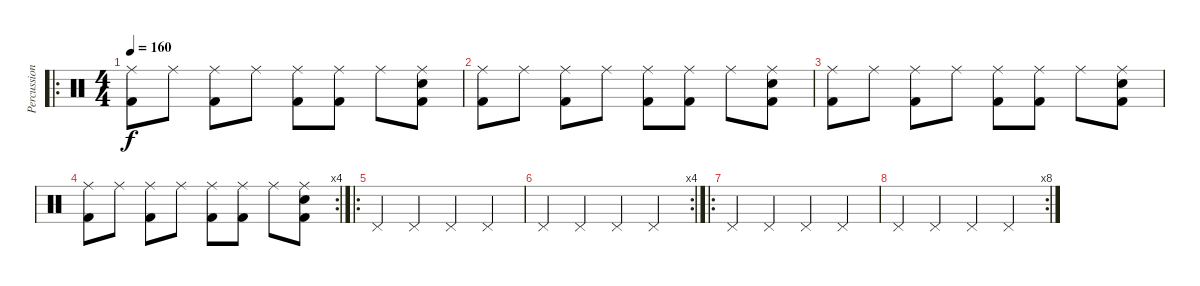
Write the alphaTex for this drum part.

\track ("Percussion" "Percussion") {instrument percussion}
\staff {score}
\articulation defaults
\ro
\ts (4 4)
\tempo 160
\clef neutral
\ks c
("Kick (hit) 2" "Ride (middle)").8{dy f} "Ride (middle)".8 ("Kick (hit) 2" "Ride (middle)").8 "Ride (middle)".8 ("Kick (hit) 2" "Ride (middle)").8 ("Kick (hit) 2" "Ride (middle)").8 "Ride (middle)".8 ("Kick (hit) 2" "Snare (hit) 2" "Ride (middle)").8 |
("Kick (hit) 2" "Ride (middle)").8 "Ride (middle)".8 ("Kick (hit) 2" "Ride (middle)").8 "Ride (middle)".8 ("Kick (hit) 2" "Ride (middle)").8 ("Kick (hit) 2" "Ride (middle)").8 "Ride (middle)".8 ("Kick (hit) 2" "Snare (hit) 2" "Ride (middle)").8 |
("Kick (hit) 2" "Ride (middle)").8 "Ride (middle)".8 ("Kick (hit) 2" "Ride (middle)").8 "Ride (middle)".8 ("Kick (hit) 2" "Ride (middle)").8 ("Kick (hit) 2" "Ride (middle)").8 "Ride (middle)".8 ("Kick (hit) 2" "Snare (hit) 2" "Ride (middle)").8 |
\rc 4
("Kick (hit) 2" "Ride (middle)").8 "Ride (middle)".8 ("Kick (hit) 2" "Ride (middle)").8 "Ride (middle)".8 ("Kick (hit) 2" "Ride (middle)").8 ("Kick (hit) 2" "Ride (middle)").8 "Ride (middle)".8 ("Kick (hit) 2" "Snare (hit) 2" "Ride (middle)").8 |
\ro "Pedal Hi-Hat (hit)".4 "Pedal Hi-Hat (hit)".4 "Pedal Hi-Hat (hit)".4 "Pedal Hi-Hat (hit)".4
|
\rc 4 "Pedal Hi-Hat (hit)".4 "Pedal Hi-Hat (hit)".4 "Pedal Hi-Hat (hit)".4 "Pedal Hi-Hat (hit)".4
|
\ro "Pedal Hi-Hat (hit)".4 "Pedal Hi-Hat (hit)".4 "Pedal Hi-Hat (hit)".4 "Pedal Hi-Hat (hit)".4
|
\rc 8 "Pedal Hi-Hat (hit)".4 "Pedal Hi-Hat (hit)".4 "Pedal Hi-Hat (hit)".4 "Pedal Hi-Hat (hit)".4
